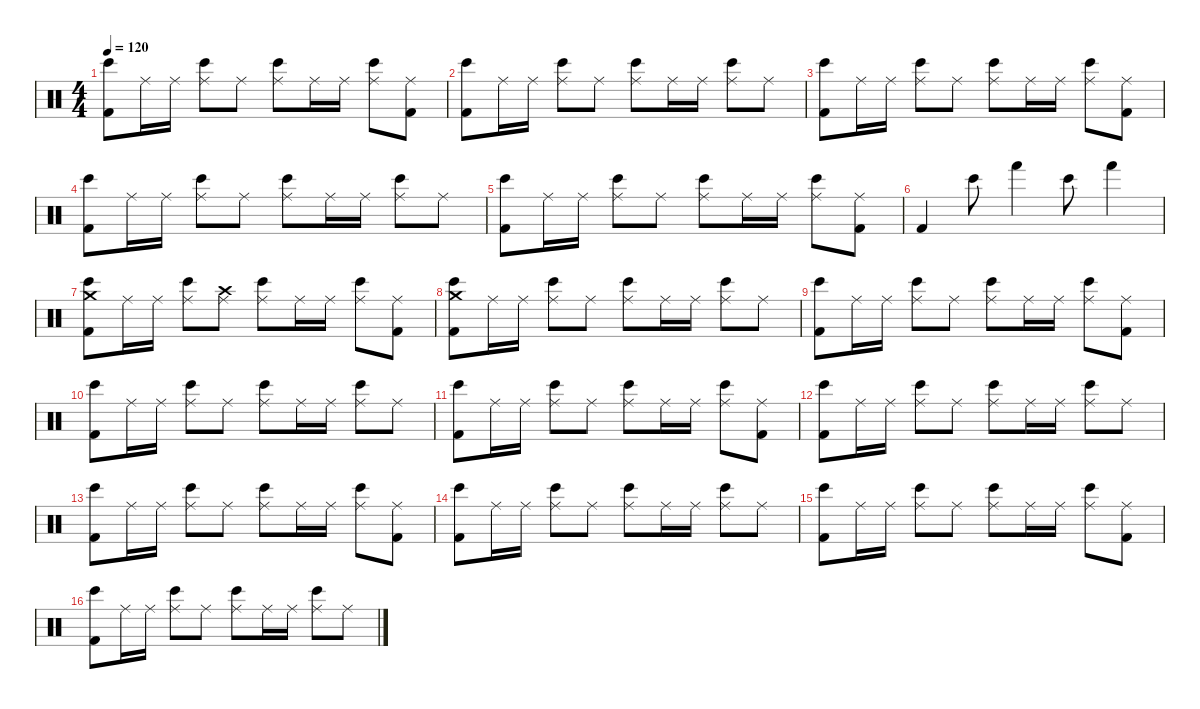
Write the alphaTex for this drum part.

\defaultSystemsLayout 4
\hideDynamics
\bracketExtendMode nobrackets
\singleTrackTrackNamePolicy hidden
\multiTrackTrackNamePolicy hidden
\firstSystemTrackNameMode fullname
\firstSystemTrackNameOrientation horizontal
\otherSystemsTrackNameOrientation horizontal
\track ("Bateria" "drm.") {instrument percussion}
\staff {score}
\articulation defaults
\ts (4 4)
\tempo 120
\clef neutral
\ks c
("Kick (hit) 2" "Bongo High (hit)").8{dy f beam Down} "Ride (middle)".16{dy mf beam Down} "Ride (middle)".16{beam Down} ("Bongo High (hit)" "Ride (middle)").8{dy f beam Down} "Ride (middle)".8{dy mf beam Down} ("Bongo High (hit)" "Ride (middle)").8{dy f beam Down} "Ride (middle)".16{dy mf beam Down} "Ride (middle)".16{beam Down} ("Bongo High (hit)" "Ride (middle)").8{dy f beam Down} ("Kick (hit) 2" "Ride (middle)").8{beam Down} |
("Kick (hit) 2" "Bongo High (hit)").8{beam Down} "Ride (middle)".16{dy mf beam Down} "Ride (middle)".16{beam Down} ("Bongo High (hit)" "Ride (middle)").8{dy f beam Down} "Ride (middle)".8{dy mf beam Down} ("Bongo High (hit)" "Ride (middle)").8{dy f beam Down} "Ride (middle)".16{dy mf beam Down} "Ride (middle)".16{beam Down} ("Bongo High (hit)" "Ride (middle)").8{dy f beam Down} "Ride (middle)".8{dy mf beam Down} |
("Kick (hit) 2" "Bongo High (hit)").8{dy f beam Down} "Ride (middle)".16{dy mf beam Down} "Ride (middle)".16{beam Down} ("Bongo High (hit)" "Ride (middle)").8{dy f beam Down} "Ride (middle)".8{dy mf beam Down} ("Bongo High (hit)" "Ride (middle)").8{dy f beam Down} "Ride (middle)".16{dy mf beam Down} "Ride (middle)".16{beam Down} ("Bongo High (hit)" "Ride (middle)").8{dy f beam Down} ("Kick (hit) 2" "Ride (middle)").8{beam Down} |
("Kick (hit) 2" "Bongo High (hit)").8{beam Down} "Ride (middle)".16{dy mf beam Down} "Ride (middle)".16{beam Down} ("Bongo High (hit)" "Ride (middle)").8{dy f beam Down} "Ride (middle)".8{dy mf beam Down} ("Bongo High (hit)" "Ride (middle)").8{dy f beam Down} "Ride (middle)".16{dy mf beam Down} "Ride (middle)".16{beam Down} ("Bongo High (hit)" "Ride (middle)").8{dy f beam Down} "Ride (middle)".8{dy mf beam Down} |
("Kick (hit) 2" "Bongo High (hit)").8{dy f beam Down} "Ride (middle)".16{dy mf beam Down} "Ride (middle)".16{beam Down} ("Bongo High (hit)" "Ride (middle)").8{dy f beam Down} "Ride (middle)".8{dy mf beam Down} ("Bongo High (hit)" "Ride (middle)").8{dy f beam Down} "Ride (middle)".16{dy mf beam Down} "Ride (middle)".16{beam Down} ("Bongo High (hit)" "Ride (middle)").8{dy f beam Down} ("Kick (hit) 2" "Ride (middle)").8{beam Down} |
"Kick (hit) 2".4{beam Up} "Bongo High (hit)".8{dy mf beam Down} "Hand (hit)".4{dy ff beam Down} "Bongo High (hit)".8{beam Down} "Hand (hit)".4{beam Down} |
("Kick (hit) 2" "Bongo High (hit)" "Crash medium (hit)").8{dy f beam Down} "Ride (middle)".16{dy mf beam Down} "Ride (middle)".16{beam Down} ("Bongo High (hit)" "Ride (middle)").8{dy f beam Down} ("Ride (middle)" "Crash high (hit)").8{dy mf beam Down} ("Bongo High (hit)" "Ride (middle)").8{dy f beam Down} "Ride (middle)".16{dy mf beam Down} "Ride (middle)".16{beam Down} ("Bongo High (hit)" "Ride (middle)").8{dy f beam Down} ("Kick (hit) 2" "Ride (middle)").8{beam Down} |
("Kick (hit) 2" "Bongo High (hit)" "Crash medium (hit)").8{beam Down} "Ride (middle)".16{dy mf beam Down} "Ride (middle)".16{beam Down} ("Bongo High (hit)" "Ride (middle)").8{dy f beam Down} "Ride (middle)".8{dy mf beam Down} ("Bongo High (hit)" "Ride (middle)").8{dy f beam Down} "Ride (middle)".16{dy mf beam Down} "Ride (middle)".16{beam Down} ("Bongo High (hit)" "Ride (middle)").8{dy f beam Down} "Ride (middle)".8{dy mf beam Down} |
("Kick (hit) 2" "Bongo High (hit)").8{dy f beam Down} "Ride (middle)".16{dy mf beam Down} "Ride (middle)".16{beam Down} ("Bongo High (hit)" "Ride (middle)").8{dy f beam Down} "Ride (middle)".8{dy mf beam Down} ("Bongo High (hit)" "Ride (middle)").8{dy f beam Down} "Ride (middle)".16{dy mf beam Down} "Ride (middle)".16{beam Down} ("Bongo High (hit)" "Ride (middle)").8{dy f beam Down} ("Kick (hit) 2" "Ride (middle)").8{beam Down} |
("Kick (hit) 2" "Bongo High (hit)").8{beam Down} "Ride (middle)".16{dy mf beam Down} "Ride (middle)".16{beam Down} ("Bongo High (hit)" "Ride (middle)").8{dy f beam Down} "Ride (middle)".8{dy mf beam Down} ("Bongo High (hit)" "Ride (middle)").8{dy f beam Down} "Ride (middle)".16{dy mf beam Down} "Ride (middle)".16{beam Down} ("Bongo High (hit)" "Ride (middle)").8{dy f beam Down} "Ride (middle)".8{dy mf beam Down} |
("Kick (hit) 2" "Bongo High (hit)").8{dy f beam Down} "Ride (middle)".16{dy mf beam Down} "Ride (middle)".16{beam Down} ("Bongo High (hit)" "Ride (middle)").8{dy f beam Down} "Ride (middle)".8{dy mf beam Down} ("Bongo High (hit)" "Ride (middle)").8{dy f beam Down} "Ride (middle)".16{dy mf beam Down} "Ride (middle)".16{beam Down} ("Bongo High (hit)" "Ride (middle)").8{dy f beam Down} ("Kick (hit) 2" "Ride (middle)").8{beam Down} |
("Kick (hit) 2" "Bongo High (hit)").8{beam Down} "Ride (middle)".16{dy mf beam Down} "Ride (middle)".16{beam Down} ("Bongo High (hit)" "Ride (middle)").8{dy f beam Down} "Ride (middle)".8{dy mf beam Down} ("Bongo High (hit)" "Ride (middle)").8{dy f beam Down} "Ride (middle)".16{dy mf beam Down} "Ride (middle)".16{beam Down} ("Bongo High (hit)" "Ride (middle)").8{dy f beam Down} "Ride (middle)".8{dy mf beam Down} |
("Kick (hit) 2" "Bongo High (hit)").8{dy f beam Down} "Ride (middle)".16{dy mf beam Down} "Ride (middle)".16{beam Down} ("Bongo High (hit)" "Ride (middle)").8{dy f beam Down} "Ride (middle)".8{dy mf beam Down} ("Bongo High (hit)" "Ride (middle)").8{dy f beam Down} "Ride (middle)".16{dy mf beam Down} "Ride (middle)".16{beam Down} ("Bongo High (hit)" "Ride (middle)").8{dy f beam Down} ("Kick (hit) 2" "Ride (middle)").8{beam Down} |
("Kick (hit) 2" "Bongo High (hit)").8{beam Down} "Ride (middle)".16{dy mf beam Down} "Ride (middle)".16{beam Down} ("Bongo High (hit)" "Ride (middle)").8{dy f beam Down} "Ride (middle)".8{dy mf beam Down} ("Bongo High (hit)" "Ride (middle)").8{dy f beam Down} "Ride (middle)".16{dy mf beam Down} "Ride (middle)".16{beam Down} ("Bongo High (hit)" "Ride (middle)").8{dy f beam Down} "Ride (middle)".8{dy mf beam Down} |
("Kick (hit) 2" "Bongo High (hit)").8{dy f beam Down} "Ride (middle)".16{dy mf beam Down} "Ride (middle)".16{beam Down} ("Bongo High (hit)" "Ride (middle)").8{dy f beam Down} "Ride (middle)".8{dy mf beam Down} ("Bongo High (hit)" "Ride (middle)").8{dy f beam Down} "Ride (middle)".16{dy mf beam Down} "Ride (middle)".16{beam Down} ("Bongo High (hit)" "Ride (middle)").8{dy f beam Down} ("Kick (hit) 2" "Ride (middle)").8{beam Down} |
("Kick (hit) 2" "Bongo High (hit)").8{beam Down} "Ride (middle)".16{dy mf beam Down} "Ride (middle)".16{beam Down} ("Bongo High (hit)" "Ride (middle)").8{dy f beam Down} "Ride (middle)".8{dy mf beam Down} ("Bongo High (hit)" "Ride (middle)").8{dy f beam Down} "Ride (middle)".16{dy mf beam Down} "Ride (middle)".16{beam Down} ("Bongo High (hit)" "Ride (middle)").8{dy f beam Down} "Ride (middle)".8{dy mf beam Down}
